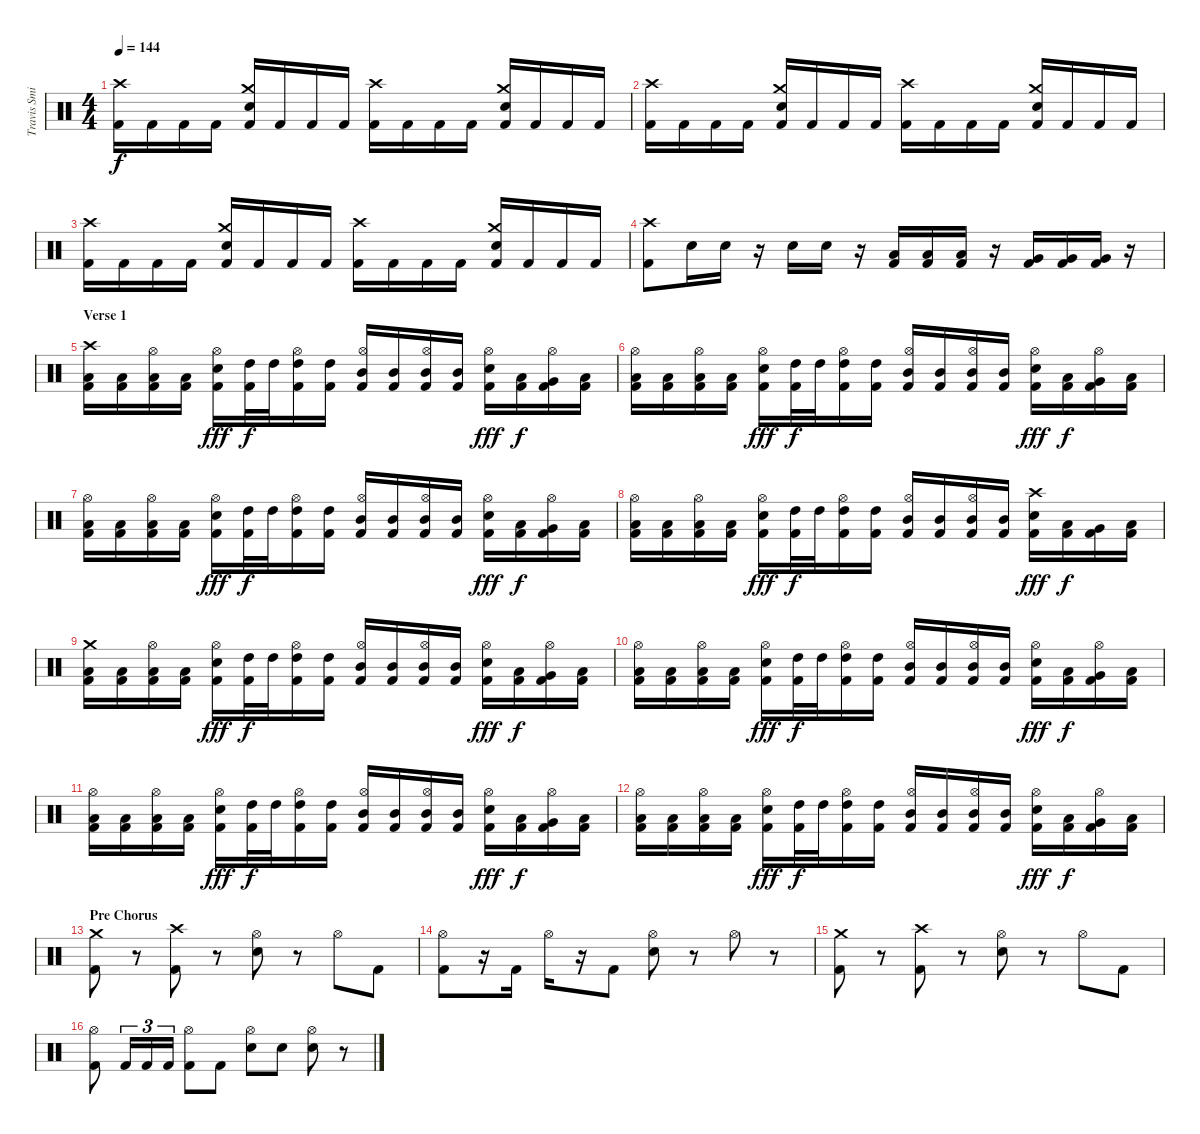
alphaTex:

\track ("Travis Smith" "Travis Smi") {instrument percussion}
\staff {score}
\articulation defaults
\ts (4 4)
\tempo 144
\clef neutral
\ks c
("Crash high (hit)" "Kick (hit) 2").16{dy f} "Kick (hit) 2".16 "Kick (hit) 2".16 "Kick (hit) 2".16 ("Crash medium (hit)" "Electric Snare (hit)" "Kick (hit) 2").16 "Kick (hit) 2".16 "Kick (hit) 2".16 "Kick (hit) 2".16 ("Crash high (hit)" "Kick (hit) 2").16 "Kick (hit) 2".16 "Kick (hit) 2".16 "Kick (hit) 2".16 ("Crash medium (hit)" "Electric Snare (hit)" "Kick (hit) 2").16 "Kick (hit) 2".16 "Kick (hit) 2".16 "Kick (hit) 2".16 |
("Crash high (hit)" "Kick (hit) 2").16 "Kick (hit) 2".16 "Kick (hit) 2".16 "Kick (hit) 2".16 ("Crash medium (hit)" "Electric Snare (hit)" "Kick (hit) 2").16 "Kick (hit) 2".16 "Kick (hit) 2".16 "Kick (hit) 2".16 ("Crash high (hit)" "Kick (hit) 2").16 "Kick (hit) 2".16 "Kick (hit) 2".16 "Kick (hit) 2".16 ("Crash medium (hit)" "Electric Snare (hit)" "Kick (hit) 2").16 "Kick (hit) 2".16 "Kick (hit) 2".16 "Kick (hit) 2".16 |
("Crash high (hit)" "Kick (hit) 2").16 "Kick (hit) 2".16 "Kick (hit) 2".16 "Kick (hit) 2".16 ("Crash medium (hit)" "Electric Snare (hit)" "Kick (hit) 2").16 "Kick (hit) 2".16 "Kick (hit) 2".16 "Kick (hit) 2".16 ("Crash high (hit)" "Kick (hit) 2").16 "Kick (hit) 2".16 "Kick (hit) 2".16 "Kick (hit) 2".16 ("Crash medium (hit)" "Electric Snare (hit)" "Kick (hit) 2").16 "Kick (hit) 2".16 "Kick (hit) 2".16 "Kick (hit) 2".16 |
("Crash high (hit)" "Kick (hit) 2").8 "Electric Snare (hit)".16 "Electric Snare (hit)".16 r.16 "Electric Snare (hit)".16 "Electric Snare (hit)".16 r.16 ("Low Tom (hit)" "Kick (hit) 2").16 ("Low Tom (hit)" "Kick (hit) 2").16 ("Low Tom (hit)" "Kick (hit) 2").16 r.16 ("Very Low Tom (hit)" "Kick (hit) 2").16 ("Very Low Tom (hit)" "Kick (hit) 2").16 ("Very Low Tom (hit)" "Kick (hit) 2").16 r.16 |
\section ("" "Verse 1")
("Crash high (hit)" "Low Tom (hit)" "Kick (hit) 2").16 ("Low Tom (hit)" "Kick (hit) 2").16 ("Hi-Hat (open)" "Low Tom (hit)" "Kick (hit) 2").16 ("Low Tom (hit)" "Kick (hit) 2").16 ("Hi-Hat (open)" "Electric Snare (hit)" "Kick (hit) 2").16{dy fff} ("High Tom (hit)" "Kick (hit) 2").32{dy f} "High Tom (hit)".32 ("Hi-Hat (open)" "High Tom (hit)" "Kick (hit) 2").16 ("High Tom (hit)" "Kick (hit) 2").16 ("Hi-Hat (open)" "Mid Tom (hit)" "Kick (hit) 2").16 ("Mid Tom (hit)" "Kick (hit) 2").16 ("Hi-Hat (open)" "Mid Tom (hit)" "Kick (hit) 2").16 ("Mid Tom (hit)" "Kick (hit) 2").16 ("Hi-Hat (open)" "Electric Snare (hit)" "Kick (hit) 2").16{dy fff} ("Low Tom (hit)" "Kick (hit) 2").16{dy f} ("Hi-Hat (open)" "Very Low Tom (hit)" "Kick (hit) 2").16 ("Low Floor Tom (hit)" "Kick (hit) 2").16 |
("Hi-Hat (open)" "Low Tom (hit)" "Kick (hit) 2").16 ("Low Tom (hit)" "Kick (hit) 2").16 ("Hi-Hat (open)" "Low Tom (hit)" "Kick (hit) 2").16 ("Low Tom (hit)" "Kick (hit) 2").16 ("Hi-Hat (open)" "Electric Snare (hit)" "Kick (hit) 2").16{dy fff} ("High Tom (hit)" "Kick (hit) 2").32{dy f} "High Tom (hit)".32 ("Hi-Hat (open)" "High Tom (hit)" "Kick (hit) 2").16 ("High Tom (hit)" "Kick (hit) 2").16 ("Hi-Hat (open)" "Mid Tom (hit)" "Kick (hit) 2").16 ("Mid Tom (hit)" "Kick (hit) 2").16 ("Hi-Hat (open)" "Mid Tom (hit)" "Kick (hit) 2").16 ("Mid Tom (hit)" "Kick (hit) 2").16 ("Hi-Hat (open)" "Electric Snare (hit)" "Kick (hit) 2").16{dy fff} ("Low Tom (hit)" "Kick (hit) 2").16{dy f} ("Hi-Hat (open)" "Very Low Tom (hit)" "Kick (hit) 2").16 ("Low Floor Tom (hit)" "Kick (hit) 2").16 |
("Hi-Hat (open)" "Low Tom (hit)" "Kick (hit) 2").16 ("Low Tom (hit)" "Kick (hit) 2").16 ("Hi-Hat (open)" "Low Tom (hit)" "Kick (hit) 2").16 ("Low Tom (hit)" "Kick (hit) 2").16 ("Hi-Hat (open)" "Electric Snare (hit)" "Kick (hit) 2").16{dy fff} ("High Tom (hit)" "Kick (hit) 2").32{dy f} "High Tom (hit)".32 ("Hi-Hat (open)" "High Tom (hit)" "Kick (hit) 2").16 ("High Tom (hit)" "Kick (hit) 2").16 ("Hi-Hat (open)" "Mid Tom (hit)" "Kick (hit) 2").16 ("Mid Tom (hit)" "Kick (hit) 2").16 ("Hi-Hat (open)" "Mid Tom (hit)" "Kick (hit) 2").16 ("Mid Tom (hit)" "Kick (hit) 2").16 ("Hi-Hat (open)" "Electric Snare (hit)" "Kick (hit) 2").16{dy fff} ("Low Tom (hit)" "Kick (hit) 2").16{dy f} ("Hi-Hat (open)" "Very Low Tom (hit)" "Kick (hit) 2").16 ("Low Floor Tom (hit)" "Kick (hit) 2").16 |
("Hi-Hat (open)" "Low Tom (hit)" "Kick (hit) 2").16 ("Low Tom (hit)" "Kick (hit) 2").16 ("Hi-Hat (open)" "Low Tom (hit)" "Kick (hit) 2").16 ("Low Tom (hit)" "Kick (hit) 2").16 ("Hi-Hat (open)" "Electric Snare (hit)" "Kick (hit) 2").16{dy fff} ("High Tom (hit)" "Kick (hit) 2").32{dy f} "High Tom (hit)".32 ("Hi-Hat (open)" "High Tom (hit)" "Kick (hit) 2").16 ("High Tom (hit)" "Kick (hit) 2").16 ("Hi-Hat (open)" "Mid Tom (hit)" "Kick (hit) 2").16 ("Mid Tom (hit)" "Kick (hit) 2").16 ("Hi-Hat (open)" "Mid Tom (hit)" "Kick (hit) 2").16 ("Mid Tom (hit)" "Kick (hit) 2").16 ("Crash high (hit)" "Electric Snare (hit)" "Kick (hit) 2").16{dy fff} ("Low Tom (hit)" "Kick (hit) 2").16{dy f} ("Very Low Tom (hit)" "Kick (hit) 2").16 ("Low Floor Tom (hit)" "Kick (hit) 2").16 |
("Crash medium (hit)" "Low Tom (hit)" "Kick (hit) 2").16 ("Low Tom (hit)" "Kick (hit) 2").16 ("Hi-Hat (open)" "Low Tom (hit)" "Kick (hit) 2").16 ("Low Tom (hit)" "Kick (hit) 2").16 ("Hi-Hat (open)" "Electric Snare (hit)" "Kick (hit) 2").16{dy fff} ("High Tom (hit)" "Kick (hit) 2").32{dy f} "High Tom (hit)".32 ("Hi-Hat (open)" "High Tom (hit)" "Kick (hit) 2").16 ("High Tom (hit)" "Kick (hit) 2").16 ("Hi-Hat (open)" "Mid Tom (hit)" "Kick (hit) 2").16 ("Mid Tom (hit)" "Kick (hit) 2").16 ("Hi-Hat (open)" "Mid Tom (hit)" "Kick (hit) 2").16 ("Mid Tom (hit)" "Kick (hit) 2").16 ("Hi-Hat (open)" "Electric Snare (hit)" "Kick (hit) 2").16{dy fff} ("Low Tom (hit)" "Kick (hit) 2").16{dy f} ("Hi-Hat (open)" "Very Low Tom (hit)" "Kick (hit) 2").16 ("Low Floor Tom (hit)" "Kick (hit) 2").16 |
("Hi-Hat (open)" "Low Tom (hit)" "Kick (hit) 2").16 ("Low Tom (hit)" "Kick (hit) 2").16 ("Hi-Hat (open)" "Low Tom (hit)" "Kick (hit) 2").16 ("Low Tom (hit)" "Kick (hit) 2").16 ("Hi-Hat (open)" "Electric Snare (hit)" "Kick (hit) 2").16{dy fff} ("High Tom (hit)" "Kick (hit) 2").32{dy f} "High Tom (hit)".32 ("Hi-Hat (open)" "High Tom (hit)" "Kick (hit) 2").16 ("High Tom (hit)" "Kick (hit) 2").16 ("Hi-Hat (open)" "Mid Tom (hit)" "Kick (hit) 2").16 ("Mid Tom (hit)" "Kick (hit) 2").16 ("Hi-Hat (open)" "Mid Tom (hit)" "Kick (hit) 2").16 ("Mid Tom (hit)" "Kick (hit) 2").16 ("Hi-Hat (open)" "Electric Snare (hit)" "Kick (hit) 2").16{dy fff} ("Low Tom (hit)" "Kick (hit) 2").16{dy f} ("Hi-Hat (open)" "Very Low Tom (hit)" "Kick (hit) 2").16 ("Low Floor Tom (hit)" "Kick (hit) 2").16 |
("Hi-Hat (open)" "Low Tom (hit)" "Kick (hit) 2").16 ("Low Tom (hit)" "Kick (hit) 2").16 ("Hi-Hat (open)" "Low Tom (hit)" "Kick (hit) 2").16 ("Low Tom (hit)" "Kick (hit) 2").16 ("Hi-Hat (open)" "Electric Snare (hit)" "Kick (hit) 2").16{dy fff} ("High Tom (hit)" "Kick (hit) 2").32{dy f} "High Tom (hit)".32 ("Hi-Hat (open)" "High Tom (hit)" "Kick (hit) 2").16 ("High Tom (hit)" "Kick (hit) 2").16 ("Hi-Hat (open)" "Mid Tom (hit)" "Kick (hit) 2").16 ("Mid Tom (hit)" "Kick (hit) 2").16 ("Hi-Hat (open)" "Mid Tom (hit)" "Kick (hit) 2").16 ("Mid Tom (hit)" "Kick (hit) 2").16 ("Hi-Hat (open)" "Electric Snare (hit)" "Kick (hit) 2").16{dy fff} ("Low Tom (hit)" "Kick (hit) 2").16{dy f} ("Hi-Hat (open)" "Very Low Tom (hit)" "Kick (hit) 2").16 ("Low Floor Tom (hit)" "Kick (hit) 2").16 |
("Hi-Hat (open)" "Low Tom (hit)" "Kick (hit) 2").16 ("Low Tom (hit)" "Kick (hit) 2").16 ("Hi-Hat (open)" "Low Tom (hit)" "Kick (hit) 2").16 ("Low Tom (hit)" "Kick (hit) 2").16 ("Hi-Hat (open)" "Electric Snare (hit)" "Kick (hit) 2").16{dy fff} ("High Tom (hit)" "Kick (hit) 2").32{dy f} "High Tom (hit)".32 ("Hi-Hat (open)" "High Tom (hit)" "Kick (hit) 2").16 ("High Tom (hit)" "Kick (hit) 2").16 ("Hi-Hat (open)" "Mid Tom (hit)" "Kick (hit) 2").16 ("Mid Tom (hit)" "Kick (hit) 2").16 ("Hi-Hat (open)" "Mid Tom (hit)" "Kick (hit) 2").16 ("Mid Tom (hit)" "Kick (hit) 2").16 ("Hi-Hat (open)" "Electric Snare (hit)" "Kick (hit) 2").16{dy fff} ("Low Tom (hit)" "Kick (hit) 2").16{dy f} ("Hi-Hat (open)" "Very Low Tom (hit)" "Kick (hit) 2").16 ("Low Floor Tom (hit)" "Kick (hit) 2").16 |
\section ("" "Pre Chorus")
("Crash medium (hit)" "Kick (hit) 2").8 r.8 ("Crash high (hit)" "Kick (hit) 2").8 r.8 ("Hi-Hat (open)" "Electric Snare (hit)").8 r.8 "Hi-Hat (open)".8 "Kick (hit) 2".8 |
("Hi-Hat (open)" "Kick (hit) 2").8 r.16 "Kick (hit) 2".16 "Hi-Hat (open)".16 r.16 "Kick (hit) 2".8 ("Hi-Hat (open)" "Electric Snare (hit)").8 r.8 "Hi-Hat (open)".8 r.8 |
("Crash medium (hit)" "Kick (hit) 2").8 r.8 ("Crash high (hit)" "Kick (hit) 2").8 r.8 ("Hi-Hat (open)" "Electric Snare (hit)").8 r.8 "Hi-Hat (open)".8 "Kick (hit) 2".8 |
("Hi-Hat (open)" "Kick (hit) 2").8 "Kick (hit) 2".16{tu (3 2)} "Kick (hit) 2".16{tu (3 2)} "Kick (hit) 2".16{tu (3 2)} ("Hi-Hat (open)" "Kick (hit) 2").8 "Kick (hit) 2".8 ("Hi-Hat (open)" "Electric Snare (hit)").8 "Electric Snare (hit)".8 ("Hi-Hat (open)" "Electric Snare (hit)").8 r.8
